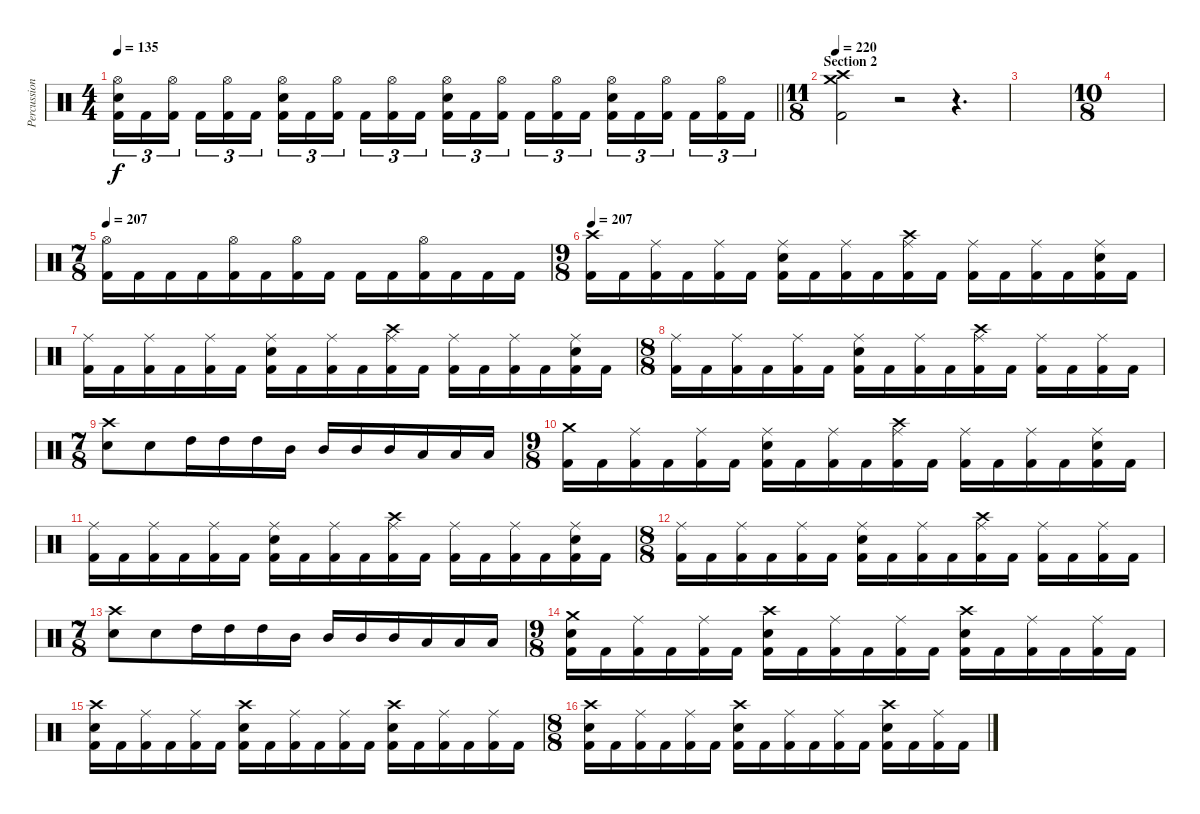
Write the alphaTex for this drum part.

\track ("Percussion" "Percussion") {instrument percussion}
\staff {score}
\articulation defaults
\ts (4 4)
\tempo 135
\clef neutral
\barLineRight lightlight
\ks c
("Hi-Hat (open)" "Electric Snare (hit)" "Kick (hit) 2").16{tu (3 2) dy f} "Kick (hit) 2".16{tu (3 2)} ("Hi-Hat (open)" "Kick (hit) 2").16{tu (3 2)} "Kick (hit) 2".16{tu (3 2)} ("Hi-Hat (open)" "Kick (hit) 2").16{tu (3 2)} "Kick (hit) 2".16{tu (3 2)} ("Hi-Hat (open)" "Electric Snare (hit)" "Kick (hit) 2").16{tu (3 2)} "Kick (hit) 2".16{tu (3 2)} ("Hi-Hat (open)" "Kick (hit) 2").16{tu (3 2)} "Kick (hit) 2".16{tu (3 2)} ("Hi-Hat (open)" "Kick (hit) 2").16{tu (3 2)} "Kick (hit) 2".16{tu (3 2)} ("Hi-Hat (open)" "Electric Snare (hit)" "Kick (hit) 2").16{tu (3 2)} "Kick (hit) 2".16{tu (3 2)} ("Hi-Hat (open)" "Kick (hit) 2").16{tu (3 2)} "Kick (hit) 2".16{tu (3 2)} ("Hi-Hat (open)" "Kick (hit) 2").16{tu (3 2)} "Kick (hit) 2".16{tu (3 2)} ("Hi-Hat (open)" "Electric Snare (hit)" "Kick (hit) 2").16{tu (3 2)} "Kick (hit) 2".16{tu (3 2)} ("Hi-Hat (open)" "Kick (hit) 2").16{tu (3 2)} "Kick (hit) 2".16{tu (3 2)} ("Hi-Hat (open)" "Kick (hit) 2").16{tu (3 2)} "Kick (hit) 2".16{tu (3 2)} |
\ts (11 8)
\section ("" "Section 2")
\tempo 220
("Crash high (hit)" "Crash medium (hit)" "Kick (hit) 2").2 r.2 r.4{d} |
|
\ts (10 8)
|
\ts (7 8)
\tempo 207
("Hi-Hat (open)" "Kick (hit) 2").16 "Kick (hit) 2".16 "Kick (hit) 2".16 "Kick (hit) 2".16 ("Hi-Hat (open)" "Kick (hit) 2").16 "Kick (hit) 2".16 ("Hi-Hat (open)" "Kick (hit) 2").16 "Kick (hit) 2".16 "Kick (hit) 2".16 "Kick (hit) 2".16 ("Hi-Hat (open)" "Kick (hit) 2").16 "Kick (hit) 2".16 "Kick (hit) 2".16 "Kick (hit) 2".16 |
\ts (9 8)
\tempo 207
("Crash high (hit)" "Kick (hit) 2").16 "Kick (hit) 2".16 ("Ride (middle)" "Kick (hit) 2").16 "Kick (hit) 2".16 ("Ride (middle)" "Kick (hit) 2").16 "Kick (hit) 2".16 ("Ride (middle)" "Electric Snare (hit)" "Kick (hit) 2").16 "Kick (hit) 2".16 ("Ride (middle)" "Kick (hit) 2").16 "Kick (hit) 2".16 ("Ride (middle)" "Crash high (hit)" "Kick (hit) 2").16 "Kick (hit) 2".16 ("Ride (middle)" "Kick (hit) 2").16 "Kick (hit) 2".16 ("Ride (middle)" "Kick (hit) 2").16 "Kick (hit) 2".16 ("Ride (middle)" "Electric Snare (hit)" "Kick (hit) 2").16 "Kick (hit) 2".16 |
("Ride (middle)" "Kick (hit) 2").16 "Kick (hit) 2".16 ("Ride (middle)" "Kick (hit) 2").16 "Kick (hit) 2".16 ("Ride (middle)" "Kick (hit) 2").16 "Kick (hit) 2".16 ("Ride (middle)" "Electric Snare (hit)" "Kick (hit) 2").16 "Kick (hit) 2".16 ("Ride (middle)" "Kick (hit) 2").16 "Kick (hit) 2".16 ("Ride (middle)" "Crash high (hit)" "Kick (hit) 2").16 "Kick (hit) 2".16 ("Ride (middle)" "Kick (hit) 2").16 "Kick (hit) 2".16 ("Ride (middle)" "Kick (hit) 2").16 "Kick (hit) 2".16 ("Ride (middle)" "Electric Snare (hit)" "Kick (hit) 2").16 "Kick (hit) 2".16 |
\ts (8 8)
("Ride (middle)" "Kick (hit) 2").16 "Kick (hit) 2".16 ("Ride (middle)" "Kick (hit) 2").16 "Kick (hit) 2".16 ("Ride (middle)" "Kick (hit) 2").16 "Kick (hit) 2".16 ("Ride (middle)" "Electric Snare (hit)" "Kick (hit) 2").16 "Kick (hit) 2".16 ("Ride (middle)" "Kick (hit) 2").16 "Kick (hit) 2".16 ("Ride (middle)" "Crash high (hit)" "Kick (hit) 2").16 "Kick (hit) 2".16 ("Ride (middle)" "Kick (hit) 2").16 "Kick (hit) 2".16 ("Ride (middle)" "Kick (hit) 2").16 "Kick (hit) 2".16 |
\ts (7 8)
("Crash high (hit)" "Electric Snare (hit)").8 "Electric Snare (hit)".8 "High Tom (hit)".16 "High Tom (hit)".16 "High Tom (hit)".16 "Mid Tom (hit)".16 "Mid Tom (hit)".16 "Mid Tom (hit)".16 "Mid Tom (hit)".16 "Low Tom (hit)".16 "Low Tom (hit)".16 "Low Tom (hit)".16 |
\ts (9 8)
("Crash medium (hit)" "Kick (hit) 2").16 "Kick (hit) 2".16 ("Ride (middle)" "Kick (hit) 2").16 "Kick (hit) 2".16 ("Ride (middle)" "Kick (hit) 2").16 "Kick (hit) 2".16 ("Ride (middle)" "Electric Snare (hit)" "Kick (hit) 2").16 "Kick (hit) 2".16 ("Ride (middle)" "Kick (hit) 2").16 "Kick (hit) 2".16 ("Ride (middle)" "Crash high (hit)" "Kick (hit) 2").16 "Kick (hit) 2".16 ("Ride (middle)" "Kick (hit) 2").16 "Kick (hit) 2".16 ("Ride (middle)" "Kick (hit) 2").16 "Kick (hit) 2".16 ("Ride (middle)" "Electric Snare (hit)" "Kick (hit) 2").16 "Kick (hit) 2".16 |
("Ride (middle)" "Kick (hit) 2").16 "Kick (hit) 2".16 ("Ride (middle)" "Kick (hit) 2").16 "Kick (hit) 2".16 ("Ride (middle)" "Kick (hit) 2").16 "Kick (hit) 2".16 ("Ride (middle)" "Electric Snare (hit)" "Kick (hit) 2").16 "Kick (hit) 2".16 ("Ride (middle)" "Kick (hit) 2").16 "Kick (hit) 2".16 ("Ride (middle)" "Crash high (hit)" "Kick (hit) 2").16 "Kick (hit) 2".16 ("Ride (middle)" "Kick (hit) 2").16 "Kick (hit) 2".16 ("Ride (middle)" "Kick (hit) 2").16 "Kick (hit) 2".16 ("Ride (middle)" "Electric Snare (hit)" "Kick (hit) 2").16 "Kick (hit) 2".16 |
\ts (8 8)
("Ride (middle)" "Kick (hit) 2").16 "Kick (hit) 2".16 ("Ride (middle)" "Kick (hit) 2").16 "Kick (hit) 2".16 ("Ride (middle)" "Kick (hit) 2").16 "Kick (hit) 2".16 ("Ride (middle)" "Electric Snare (hit)" "Kick (hit) 2").16 "Kick (hit) 2".16 ("Ride (middle)" "Kick (hit) 2").16 "Kick (hit) 2".16 ("Ride (middle)" "Crash high (hit)" "Kick (hit) 2").16 "Kick (hit) 2".16 ("Ride (middle)" "Kick (hit) 2").16 "Kick (hit) 2".16 ("Ride (middle)" "Kick (hit) 2").16 "Kick (hit) 2".16 |
\ts (7 8)
("Crash high (hit)" "Electric Snare (hit)").8 "Electric Snare (hit)".8 "High Tom (hit)".16 "High Tom (hit)".16 "High Tom (hit)".16 "Mid Tom (hit)".16 "Mid Tom (hit)".16 "Mid Tom (hit)".16 "Mid Tom (hit)".16 "Low Tom (hit)".16 "Low Tom (hit)".16 "Low Tom (hit)".16 |
\ts (9 8)
("Crash medium (hit)" "Electric Snare (hit)" "Kick (hit) 2").16 "Kick (hit) 2".16 ("Ride (middle)" "Kick (hit) 2").16 "Kick (hit) 2".16 ("Ride (middle)" "Kick (hit) 2").16 "Kick (hit) 2".16 ("Crash high (hit)" "Electric Snare (hit)" "Kick (hit) 2").16 "Kick (hit) 2".16 ("Ride (middle)" "Kick (hit) 2").16 "Kick (hit) 2".16 ("Ride (middle)" "Kick (hit) 2").16 "Kick (hit) 2".16 ("Crash high (hit)" "Electric Snare (hit)" "Kick (hit) 2").16 "Kick (hit) 2".16 ("Ride (middle)" "Kick (hit) 2").16 "Kick (hit) 2".16 ("Ride (middle)" "Kick (hit) 2").16 "Kick (hit) 2".16 |
("Crash high (hit)" "Electric Snare (hit)" "Kick (hit) 2").16 "Kick (hit) 2".16 ("Ride (middle)" "Kick (hit) 2").16 "Kick (hit) 2".16 ("Ride (middle)" "Kick (hit) 2").16 "Kick (hit) 2".16 ("Crash high (hit)" "Electric Snare (hit)" "Kick (hit) 2").16 "Kick (hit) 2".16 ("Ride (middle)" "Kick (hit) 2").16 "Kick (hit) 2".16 ("Ride (middle)" "Kick (hit) 2").16 "Kick (hit) 2".16 ("Crash high (hit)" "Electric Snare (hit)" "Kick (hit) 2").16 "Kick (hit) 2".16 ("Ride (middle)" "Kick (hit) 2").16 "Kick (hit) 2".16 ("Ride (middle)" "Kick (hit) 2").16 "Kick (hit) 2".16 |
\ts (8 8)
("Crash high (hit)" "Electric Snare (hit)" "Kick (hit) 2").16 "Kick (hit) 2".16 ("Ride (middle)" "Kick (hit) 2").16 "Kick (hit) 2".16 ("Ride (middle)" "Kick (hit) 2").16 "Kick (hit) 2".16 ("Crash high (hit)" "Electric Snare (hit)" "Kick (hit) 2").16 "Kick (hit) 2".16 ("Ride (middle)" "Kick (hit) 2").16 "Kick (hit) 2".16 ("Ride (middle)" "Kick (hit) 2").16 "Kick (hit) 2".16 ("Crash high (hit)" "Electric Snare (hit)" "Kick (hit) 2").16 "Kick (hit) 2".16 ("Ride (middle)" "Kick (hit) 2").16 "Kick (hit) 2".16
